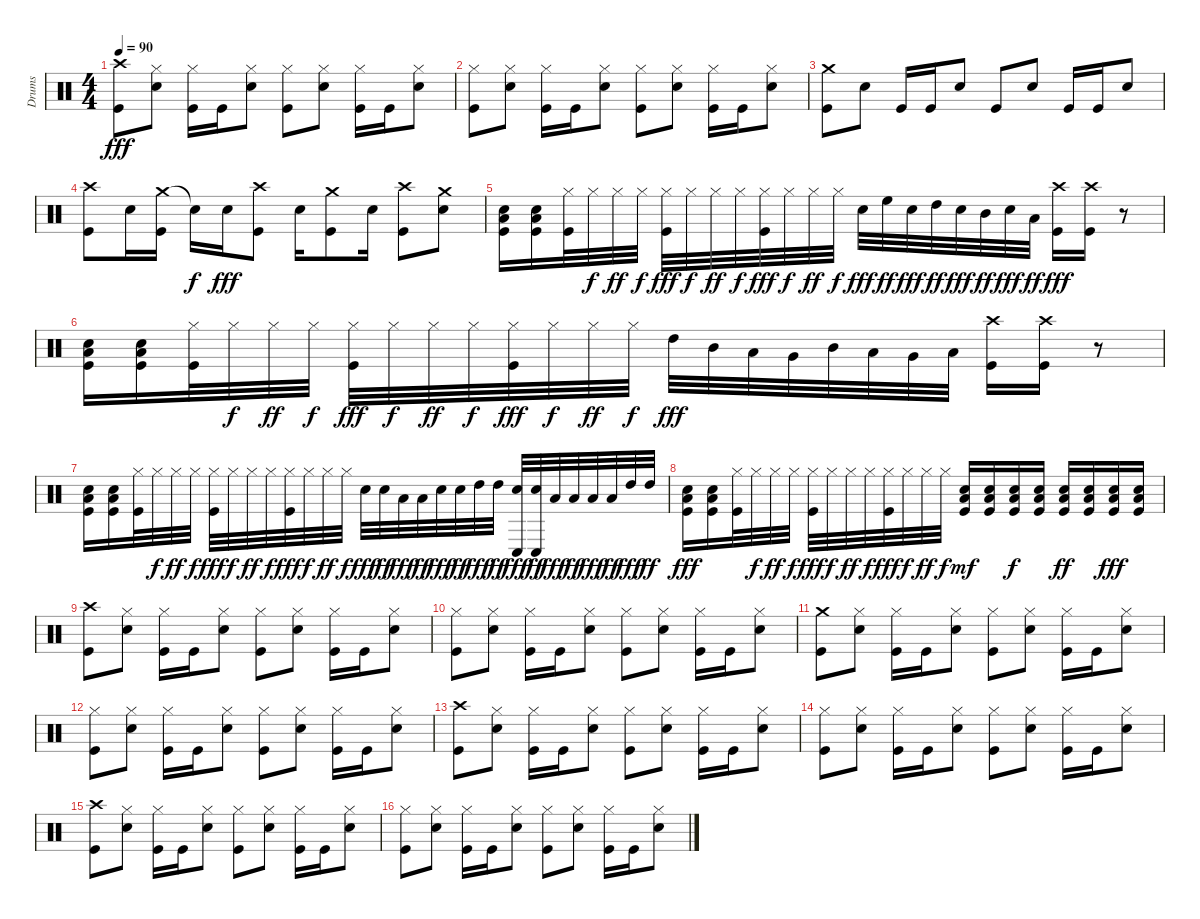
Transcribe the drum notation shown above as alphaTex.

\track ("Drums" "Drums") {instrument percussion}
\staff {score}
\articulation defaults
\ts (4 4)
\tempo 90
\clef neutral
\ks c
("Crash high (hit)" "Kick (hit)").8{dy fff} ("Hi-Hat (closed)" "Snare (hit) 2").8 ("Hi-Hat (closed)" "Kick (hit)").16 "Kick (hit)".16 ("Hi-Hat (closed)" "Snare (hit) 2").8 ("Hi-Hat (closed)" "Kick (hit)").8 ("Hi-Hat (closed)" "Snare (hit) 2").8 ("Hi-Hat (closed)" "Kick (hit)").16 "Kick (hit)".16 ("Hi-Hat (closed)" "Snare (hit) 2").8 |
("Hi-Hat (closed)" "Kick (hit)").8 ("Hi-Hat (closed)" "Snare (hit) 2").8 ("Hi-Hat (closed)" "Kick (hit)").16 "Kick (hit)".16 ("Hi-Hat (closed)" "Snare (hit) 2").8 ("Hi-Hat (closed)" "Kick (hit)").8 ("Hi-Hat (closed)" "Snare (hit) 2").8 ("Hi-Hat (closed)" "Kick (hit)").16 "Kick (hit)".16 ("Hi-Hat (closed)" "Snare (hit) 2").8 |
("Crash medium (hit)" "Kick (hit)").8 "Snare (hit) 2".8 "Kick (hit)".16 "Kick (hit)".16 "Snare (hit) 2".8 "Kick (hit)".8 "Snare (hit) 2".8 "Kick (hit)".16 "Kick (hit)".16 "Snare (hit) 2".8 |
("Crash high (hit)" "Kick (hit)").8 "Snare (hit) 2".16 ("Crash medium (hit)" "Kick (hit)").16 "Snare (hit)"{t}.16{dy f} "Snare (hit) 2".16{dy fff} ("Crash high (hit)" "Kick (hit)").8 "Snare (hit) 2".16 ("Crash medium (hit)" "Kick (hit)").8 "Snare (hit) 2".16 ("Crash high (hit)" "Kick (hit)").8 ("Crash medium (hit)" "Snare (hit) 2").8 |
("Low Floor Tom (hit)" "Snare (hit) 2" "Kick (hit)").16 ("Low Floor Tom (hit)" "Snare (hit) 2" "Kick (hit)").16 ("Hi-Hat (closed)" "Kick (hit)").32 "Hi-Hat (closed)".32{dy f} "Hi-Hat (closed)".32{dy ff} "Hi-Hat (closed)".32{dy f} ("Hi-Hat (closed)" "Kick (hit)").32{dy fff} "Hi-Hat (closed)".32{dy f} "Hi-Hat (closed)".32{dy ff} "Hi-Hat (closed)".32{dy f} ("Hi-Hat (closed)" "Kick (hit)").32{dy fff} "Hi-Hat (closed)".32{dy f} "Hi-Hat (closed)".32{dy ff} "Hi-Hat (closed)".32{dy f} "Snare (hit) 2".32{dy fff} "High Floor Tom (hit)".32{dy ff} "Snare (hit) 2".32{dy fff} "High Tom (hit)".32{dy ff} "Snare (hit) 2".32{dy fff} "Mid Tom (hit)".32{dy ff} "Snare (hit) 2".32{dy fff} "Low Tom (hit)".32{dy ff} ("Crash high (hit)" "Kick (hit)").16{dy fff} ("Crash high (hit)" "Kick (hit)").16 r.8 |
("Low Floor Tom (hit)" "Snare (hit) 2" "Kick (hit)").16 ("Low Floor Tom (hit)" "Snare (hit) 2" "Kick (hit)").16 ("Hi-Hat (closed)" "Kick (hit)").32 "Hi-Hat (closed)".32{dy f} "Hi-Hat (closed)".32{dy ff} "Hi-Hat (closed)".32{dy f} ("Hi-Hat (closed)" "Kick (hit)").32{dy fff} "Hi-Hat (closed)".32{dy f} "Hi-Hat (closed)".32{dy ff} "Hi-Hat (closed)".32{dy f} ("Hi-Hat (closed)" "Kick (hit)").32{dy fff} "Hi-Hat (closed)".32{dy f} "Hi-Hat (closed)".32{dy ff} "Hi-Hat (closed)".32{dy f} "High Tom (hit)".32{dy fff} "Mid Tom (hit)".32 "Low Tom (hit)".32 "Very Low Tom (hit)".32 "Mid Tom (hit)".32 "Low Tom (hit)".32 "Very Low Tom (hit)".32 "Low Floor Tom (hit)".32 ("Crash high (hit)" "Kick (hit)").16 ("Crash high (hit)" "Kick (hit)").16 r.8 |
("Low Floor Tom (hit)" "Snare (hit) 2" "Kick (hit)").16 ("Low Floor Tom (hit)" "Snare (hit) 2" "Kick (hit)").16 ("Hi-Hat (closed)" "Kick (hit)").32 "Hi-Hat (closed)".32{dy f} "Hi-Hat (closed)".32{dy ff} "Hi-Hat (closed)".32{dy f} ("Hi-Hat (closed)" "Kick (hit)").32{dy fff} "Hi-Hat (closed)".32{dy f} "Hi-Hat (closed)".32{dy ff} "Hi-Hat (closed)".32{dy f} ("Hi-Hat (closed)" "Kick (hit)").32{dy fff} "Hi-Hat (closed)".32{dy f} "Hi-Hat (closed)".32{dy ff} "Hi-Hat (closed)".32{dy f} "Snare (hit) 2".32{dy fff} "Snare (hit) 2".32{dy ff} "Low Floor Tom (hit)".32{dy fff} "Low Floor Tom (hit)".32{dy ff} "Snare (hit) 2".32{dy fff} "Snare (hit) 2".32{dy ff} "High Tom (hit)".32{dy fff} "High Tom (hit)".32{dy ff} ("Conga low (hit)" "Snare (hit) 2").32{dy fff} ("Conga low (hit)" "Snare (hit) 2").32{dy ff} "Low Floor Tom (hit)".32{dy fff} "Low Floor Tom (hit)".32{dy ff} "Low Tom (hit)".32{dy fff} "Low Tom (hit)".32{dy ff} "High Tom (hit)".32{dy fff} "High Tom (hit)".32{dy ff} |
("Low Floor Tom (hit)" "Snare (hit) 2" "Kick (hit)").16{dy fff} ("Low Floor Tom (hit)" "Snare (hit) 2" "Kick (hit)").16 ("Hi-Hat (closed)" "Kick (hit)").32 "Hi-Hat (closed)".32{dy f} "Hi-Hat (closed)".32{dy ff} "Hi-Hat (closed)".32{dy f} ("Hi-Hat (closed)" "Kick (hit)").32{dy fff} "Hi-Hat (closed)".32{dy f} "Hi-Hat (closed)".32{dy ff} "Hi-Hat (closed)".32{dy f} ("Hi-Hat (closed)" "Kick (hit)").32{dy fff} "Hi-Hat (closed)".32{dy f} "Hi-Hat (closed)".32{dy ff} "Hi-Hat (closed)".32{dy f} ("Low Tom (hit)" "Snare (hit) 2" "Kick (hit)").16{dy mf} ("Low Tom (hit)" "Snare (hit) 2" "Kick (hit)").16 ("Low Tom (hit)" "Snare (hit) 2" "Kick (hit)").16{dy f} ("Low Tom (hit)" "Snare (hit) 2" "Kick (hit)").16 ("Low Tom (hit)" "Snare (hit) 2" "Kick (hit)").16{dy ff} ("Low Tom (hit)" "Snare (hit) 2" "Kick (hit)").16 ("Low Tom (hit)" "Snare (hit) 2" "Kick (hit)").16{dy fff} ("Low Tom (hit)" "Snare (hit) 2" "Kick (hit)").16 |
("Crash high (hit)" "Kick (hit)").8 ("Hi-Hat (closed)" "Snare (hit) 2").8 ("Hi-Hat (closed)" "Kick (hit)").16 "Kick (hit)".16 ("Hi-Hat (closed)" "Snare (hit) 2").8 ("Hi-Hat (closed)" "Kick (hit)").8 ("Hi-Hat (closed)" "Snare (hit) 2").8 ("Hi-Hat (closed)" "Kick (hit)").16 "Kick (hit)".16 ("Hi-Hat (closed)" "Snare (hit) 2").8 |
("Hi-Hat (closed)" "Kick (hit)").8 ("Hi-Hat (closed)" "Snare (hit) 2").8 ("Hi-Hat (closed)" "Kick (hit)").16 "Kick (hit)".16 ("Hi-Hat (closed)" "Snare (hit) 2").8 ("Hi-Hat (closed)" "Kick (hit)").8 ("Hi-Hat (closed)" "Snare (hit) 2").8 ("Hi-Hat (closed)" "Kick (hit)").16 "Kick (hit)".16 ("Hi-Hat (closed)" "Snare (hit) 2").8 |
("Crash medium (hit)" "Kick (hit)").8 ("Hi-Hat (closed)" "Snare (hit) 2").8 ("Hi-Hat (closed)" "Kick (hit)").16 "Kick (hit)".16 ("Hi-Hat (closed)" "Snare (hit) 2").8 ("Hi-Hat (closed)" "Kick (hit)").8 ("Hi-Hat (closed)" "Snare (hit) 2").8 ("Hi-Hat (closed)" "Kick (hit)").16 "Kick (hit)".16 ("Hi-Hat (closed)" "Snare (hit) 2").8 |
("Hi-Hat (closed)" "Kick (hit)").8 ("Hi-Hat (closed)" "Snare (hit) 2").8 ("Hi-Hat (closed)" "Kick (hit)").16 "Kick (hit)".16 ("Hi-Hat (closed)" "Snare (hit) 2").8 ("Hi-Hat (closed)" "Kick (hit)").8 ("Hi-Hat (closed)" "Snare (hit) 2").8 ("Hi-Hat (closed)" "Kick (hit)").16 "Kick (hit)".16 ("Hi-Hat (closed)" "Snare (hit) 2").8 |
("Crash high (hit)" "Kick (hit)").8 ("Hi-Hat (closed)" "Snare (hit) 2").8 ("Hi-Hat (closed)" "Kick (hit)").16 "Kick (hit)".16 ("Hi-Hat (closed)" "Snare (hit) 2").8 ("Hi-Hat (closed)" "Kick (hit)").8 ("Hi-Hat (closed)" "Snare (hit) 2").8 ("Hi-Hat (closed)" "Kick (hit)").16 "Kick (hit)".16 ("Hi-Hat (closed)" "Snare (hit) 2").8 |
("Hi-Hat (closed)" "Kick (hit)").8 ("Hi-Hat (closed)" "Snare (hit) 2").8 ("Hi-Hat (closed)" "Kick (hit)").16 "Kick (hit)".16 ("Hi-Hat (closed)" "Snare (hit) 2").8 ("Hi-Hat (closed)" "Kick (hit)").8 ("Hi-Hat (closed)" "Snare (hit) 2").8 ("Hi-Hat (closed)" "Kick (hit)").16 "Kick (hit)".16 ("Hi-Hat (closed)" "Snare (hit) 2").8 |
("Crash high (hit)" "Kick (hit)").8 ("Hi-Hat (closed)" "Snare (hit) 2").8 ("Hi-Hat (closed)" "Kick (hit)").16 "Kick (hit)".16 ("Hi-Hat (closed)" "Snare (hit) 2").8 ("Hi-Hat (closed)" "Kick (hit)").8 ("Hi-Hat (closed)" "Snare (hit) 2").8 ("Hi-Hat (closed)" "Kick (hit)").16 "Kick (hit)".16 ("Hi-Hat (closed)" "Snare (hit) 2").8 |
("Hi-Hat (closed)" "Kick (hit)").8 ("Hi-Hat (closed)" "Snare (hit) 2").8 ("Hi-Hat (closed)" "Kick (hit)").16 "Kick (hit)".16 ("Hi-Hat (closed)" "Snare (hit) 2").8 ("Hi-Hat (closed)" "Kick (hit)").8 ("Hi-Hat (closed)" "Snare (hit) 2").8 ("Hi-Hat (closed)" "Kick (hit)").16 "Kick (hit)".16 ("Hi-Hat (closed)" "Snare (hit) 2").8
